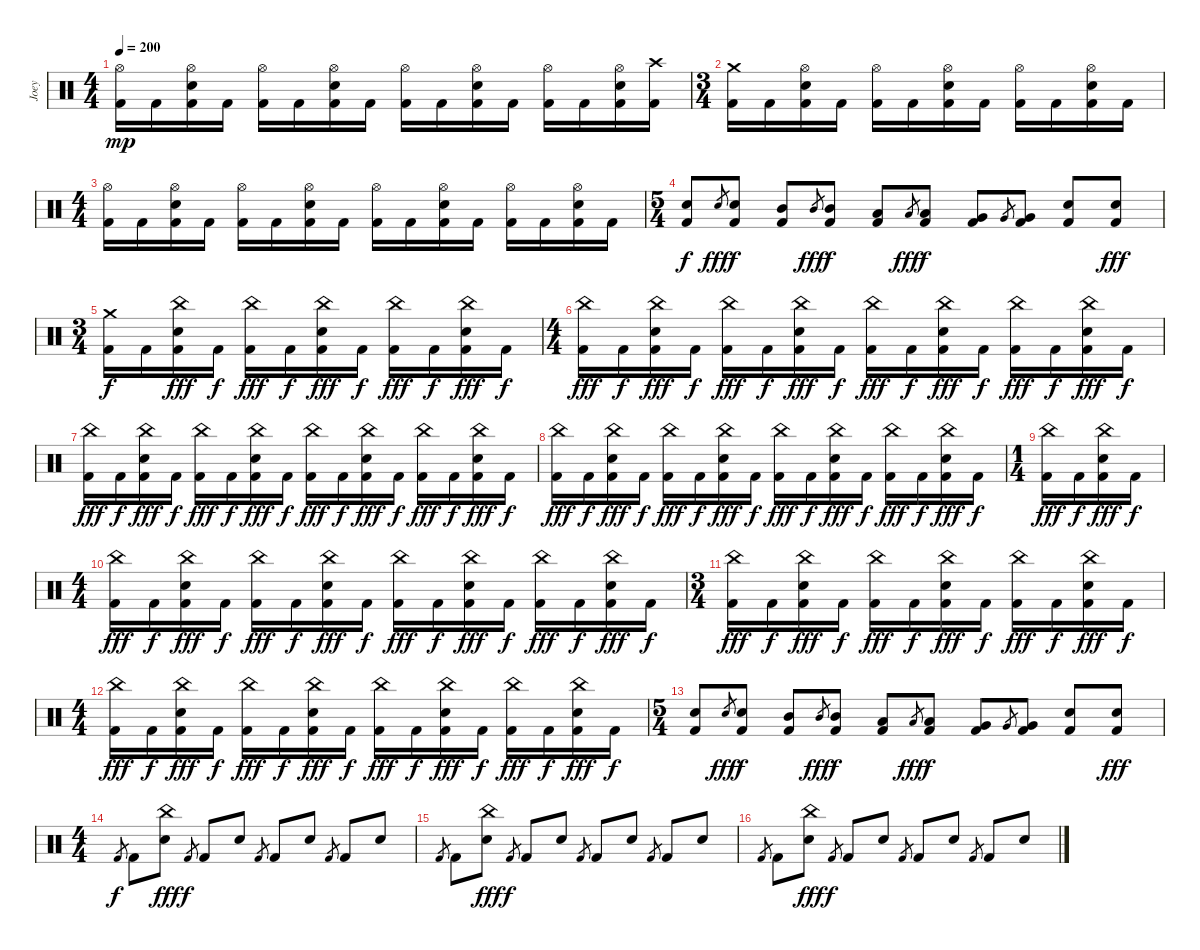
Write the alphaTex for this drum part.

\track ("Joey" "Joey") {instrument percussion}
\staff {score}
\articulation defaults
\ts (4 4)
\tempo 200
\clef neutral
\ks c
("Hi-Hat (open)" "Kick (hit) 2").16{dy mp} "Kick (hit) 2".16 ("Hi-Hat (open)" "Electric Snare (hit)" "Kick (hit) 2").16 "Kick (hit) 2".16 ("Hi-Hat (open)" "Kick (hit) 2").16 "Kick (hit) 2".16 ("Hi-Hat (open)" "Electric Snare (hit)" "Kick (hit) 2").16 "Kick (hit) 2".16 ("Hi-Hat (open)" "Kick (hit) 2").16 "Kick (hit) 2".16 ("Hi-Hat (open)" "Electric Snare (hit)" "Kick (hit) 2").16 "Kick (hit) 2".16 ("Hi-Hat (open)" "Kick (hit) 2").16 "Kick (hit) 2".16 ("Hi-Hat (open)" "Electric Snare (hit)" "Kick (hit) 2").16 ("Crash high (hit)" "Kick (hit) 2").16 |
\ts (3 4)
("Crash medium (hit)" "Kick (hit) 2").16 "Kick (hit) 2".16 ("Hi-Hat (open)" "Electric Snare (hit)" "Kick (hit) 2").16 "Kick (hit) 2".16 ("Hi-Hat (open)" "Kick (hit) 2").16 "Kick (hit) 2".16 ("Hi-Hat (open)" "Electric Snare (hit)" "Kick (hit) 2").16 "Kick (hit) 2".16 ("Hi-Hat (open)" "Kick (hit) 2").16 "Kick (hit) 2".16 ("Hi-Hat (open)" "Electric Snare (hit)" "Kick (hit) 2").16 "Kick (hit) 2".16 |
\ts (4 4)
("Hi-Hat (open)" "Kick (hit) 2").16 "Kick (hit) 2".16 ("Hi-Hat (open)" "Electric Snare (hit)" "Kick (hit) 2").16 "Kick (hit) 2".16 ("Hi-Hat (open)" "Kick (hit) 2").16 "Kick (hit) 2".16 ("Hi-Hat (open)" "Electric Snare (hit)" "Kick (hit) 2").16 "Kick (hit) 2".16 ("Hi-Hat (open)" "Kick (hit) 2").16 "Kick (hit) 2".16 ("Hi-Hat (open)" "Electric Snare (hit)" "Kick (hit) 2").16 "Kick (hit) 2".16 ("Hi-Hat (open)" "Kick (hit) 2").16 "Kick (hit) 2".16 ("Hi-Hat (open)" "Electric Snare (hit)" "Kick (hit) 2").16 "Kick (hit) 2".16 |
\ts (5 4)
("Electric Snare (hit)" "Kick (hit) 2").8{dy f} "Electric Snare (hit)".8{gr dy fff} ("Electric Snare (hit)" "Kick (hit) 2").8{dy f} ("Mid Tom (hit)" "Kick (hit) 2").8 "Mid Tom (hit)".8{gr dy fff} ("Mid Tom (hit)" "Kick (hit) 2").8{dy f} ("Low Tom (hit)" "Kick (hit) 2").8 "Low Tom (hit)".8{gr dy fff} ("Low Tom (hit)" "Kick (hit) 2").8{dy f} ("Very Low Tom (hit)" "Kick (hit) 2").8 "Very Low Tom (hit)".8{gr} ("Very Low Tom (hit)" "Kick (hit) 2").8 ("Electric Snare (hit)" "Kick (hit) 2").8 ("Electric Snare (hit)" "Kick (hit) 2").8{dy fff} |
\ts (3 4)
("Crash medium (hit)" "Kick (hit) 2").16{dy f} "Kick (hit) 2".16 ("China (hit)" "Electric Snare (hit)" "Kick (hit) 2").16{dy fff} "Kick (hit) 2".16{dy f} ("China (hit)" "Kick (hit) 2").16{dy fff} "Kick (hit) 2".16{dy f} ("China (hit)" "Electric Snare (hit)" "Kick (hit) 2").16{dy fff} "Kick (hit) 2".16{dy f} ("China (hit)" "Kick (hit) 2").16{dy fff} "Kick (hit) 2".16{dy f} ("China (hit)" "Electric Snare (hit)" "Kick (hit) 2").16{dy fff} "Kick (hit) 2".16{dy f} |
\ts (4 4)
("China (hit)" "Kick (hit) 2").16{dy fff} "Kick (hit) 2".16{dy f} ("China (hit)" "Electric Snare (hit)" "Kick (hit) 2").16{dy fff} "Kick (hit) 2".16{dy f} ("China (hit)" "Kick (hit) 2").16{dy fff} "Kick (hit) 2".16{dy f} ("China (hit)" "Electric Snare (hit)" "Kick (hit) 2").16{dy fff} "Kick (hit) 2".16{dy f} ("China (hit)" "Kick (hit) 2").16{dy fff} "Kick (hit) 2".16{dy f} ("China (hit)" "Electric Snare (hit)" "Kick (hit) 2").16{dy fff} "Kick (hit) 2".16{dy f} ("China (hit)" "Kick (hit) 2").16{dy fff} "Kick (hit) 2".16{dy f} ("China (hit)" "Electric Snare (hit)" "Kick (hit) 2").16{dy fff} "Kick (hit) 2".16{dy f} |
("China (hit)" "Kick (hit) 2").16{dy fff} "Kick (hit) 2".16{dy f} ("China (hit)" "Electric Snare (hit)" "Kick (hit) 2").16{dy fff} "Kick (hit) 2".16{dy f} ("China (hit)" "Kick (hit) 2").16{dy fff} "Kick (hit) 2".16{dy f} ("China (hit)" "Electric Snare (hit)" "Kick (hit) 2").16{dy fff} "Kick (hit) 2".16{dy f} ("China (hit)" "Kick (hit) 2").16{dy fff} "Kick (hit) 2".16{dy f} ("China (hit)" "Electric Snare (hit)" "Kick (hit) 2").16{dy fff} "Kick (hit) 2".16{dy f} ("China (hit)" "Kick (hit) 2").16{dy fff} "Kick (hit) 2".16{dy f} ("China (hit)" "Electric Snare (hit)" "Kick (hit) 2").16{dy fff} "Kick (hit) 2".16{dy f} |
("China (hit)" "Kick (hit) 2").16{dy fff} "Kick (hit) 2".16{dy f} ("China (hit)" "Electric Snare (hit)" "Kick (hit) 2").16{dy fff} "Kick (hit) 2".16{dy f} ("China (hit)" "Kick (hit) 2").16{dy fff} "Kick (hit) 2".16{dy f} ("China (hit)" "Electric Snare (hit)" "Kick (hit) 2").16{dy fff} "Kick (hit) 2".16{dy f} ("China (hit)" "Kick (hit) 2").16{dy fff} "Kick (hit) 2".16{dy f} ("China (hit)" "Electric Snare (hit)" "Kick (hit) 2").16{dy fff} "Kick (hit) 2".16{dy f} ("China (hit)" "Kick (hit) 2").16{dy fff} "Kick (hit) 2".16{dy f} ("China (hit)" "Electric Snare (hit)" "Kick (hit) 2").16{dy fff} "Kick (hit) 2".16{dy f} |
\ts (1 4)
("China (hit)" "Kick (hit) 2").16{dy fff} "Kick (hit) 2".16{dy f} ("China (hit)" "Electric Snare (hit)" "Kick (hit) 2").16{dy fff} "Kick (hit) 2".16{dy f} |
\ts (4 4)
("China (hit)" "Kick (hit) 2").16{dy fff} "Kick (hit) 2".16{dy f} ("China (hit)" "Electric Snare (hit)" "Kick (hit) 2").16{dy fff} "Kick (hit) 2".16{dy f} ("China (hit)" "Kick (hit) 2").16{dy fff} "Kick (hit) 2".16{dy f} ("China (hit)" "Electric Snare (hit)" "Kick (hit) 2").16{dy fff} "Kick (hit) 2".16{dy f} ("China (hit)" "Kick (hit) 2").16{dy fff} "Kick (hit) 2".16{dy f} ("China (hit)" "Electric Snare (hit)" "Kick (hit) 2").16{dy fff} "Kick (hit) 2".16{dy f} ("China (hit)" "Kick (hit) 2").16{dy fff} "Kick (hit) 2".16{dy f} ("China (hit)" "Electric Snare (hit)" "Kick (hit) 2").16{dy fff} "Kick (hit) 2".16{dy f} |
\ts (3 4)
("China (hit)" "Kick (hit) 2").16{dy fff} "Kick (hit) 2".16{dy f} ("China (hit)" "Electric Snare (hit)" "Kick (hit) 2").16{dy fff} "Kick (hit) 2".16{dy f} ("China (hit)" "Kick (hit) 2").16{dy fff} "Kick (hit) 2".16{dy f} ("China (hit)" "Electric Snare (hit)" "Kick (hit) 2").16{dy fff} "Kick (hit) 2".16{dy f} ("China (hit)" "Kick (hit) 2").16{dy fff} "Kick (hit) 2".16{dy f} ("China (hit)" "Electric Snare (hit)" "Kick (hit) 2").16{dy fff} "Kick (hit) 2".16{dy f} |
\ts (4 4)
("China (hit)" "Kick (hit) 2").16{dy fff} "Kick (hit) 2".16{dy f} ("China (hit)" "Electric Snare (hit)" "Kick (hit) 2").16{dy fff} "Kick (hit) 2".16{dy f} ("China (hit)" "Kick (hit) 2").16{dy fff} "Kick (hit) 2".16{dy f} ("China (hit)" "Electric Snare (hit)" "Kick (hit) 2").16{dy fff} "Kick (hit) 2".16{dy f} ("China (hit)" "Kick (hit) 2").16{dy fff} "Kick (hit) 2".16{dy f} ("China (hit)" "Electric Snare (hit)" "Kick (hit) 2").16{dy fff} "Kick (hit) 2".16{dy f} ("China (hit)" "Kick (hit) 2").16{dy fff} "Kick (hit) 2".16{dy f} ("China (hit)" "Electric Snare (hit)" "Kick (hit) 2").16{dy fff} "Kick (hit) 2".16{dy f} |
\ts (5 4)
("Electric Snare (hit)" "Kick (hit) 2").8 "Electric Snare (hit)".8{gr dy fff} ("Electric Snare (hit)" "Kick (hit) 2").8{dy f} ("Mid Tom (hit)" "Kick (hit) 2").8 "Mid Tom (hit)".8{gr dy fff} ("Mid Tom (hit)" "Kick (hit) 2").8{dy f} ("Low Tom (hit)" "Kick (hit) 2").8 "Low Tom (hit)".8{gr dy fff} ("Low Tom (hit)" "Kick (hit) 2").8{dy f} ("Very Low Tom (hit)" "Kick (hit) 2").8 "Very Low Tom (hit)".8{gr} ("Very Low Tom (hit)" "Kick (hit) 2").8 ("Electric Snare (hit)" "Kick (hit) 2").8 ("Electric Snare (hit)" "Kick (hit) 2").8{dy fff} |
\ts (4 4)
"Kick (hit) 2".8{gr dy f} "Kick (hit) 2".8 ("China (hit)" "Electric Snare (hit)").8{dy fff} "Kick (hit) 2".8{gr dy f} "Kick (hit) 2".8 "Electric Snare (hit)".8 "Kick (hit) 2".8{gr} "Kick (hit) 2".8 "Electric Snare (hit)".8 "Kick (hit) 2".8{gr} "Kick (hit) 2".8 "Electric Snare (hit)".8 |
"Kick (hit) 2".8{gr} "Kick (hit) 2".8 ("China (hit)" "Electric Snare (hit)").8{dy fff} "Kick (hit) 2".8{gr dy f} "Kick (hit) 2".8 "Electric Snare (hit)".8 "Kick (hit) 2".8{gr} "Kick (hit) 2".8 "Electric Snare (hit)".8 "Kick (hit) 2".8{gr} "Kick (hit) 2".8 "Electric Snare (hit)".8 |
"Kick (hit) 2".8{gr} "Kick (hit) 2".8 ("China (hit)" "Electric Snare (hit)").8{dy fff} "Kick (hit) 2".8{gr dy f} "Kick (hit) 2".8 "Electric Snare (hit)".8 "Kick (hit) 2".8{gr} "Kick (hit) 2".8 "Electric Snare (hit)".8 "Kick (hit) 2".8{gr} "Kick (hit) 2".8 "Electric Snare (hit)".8
